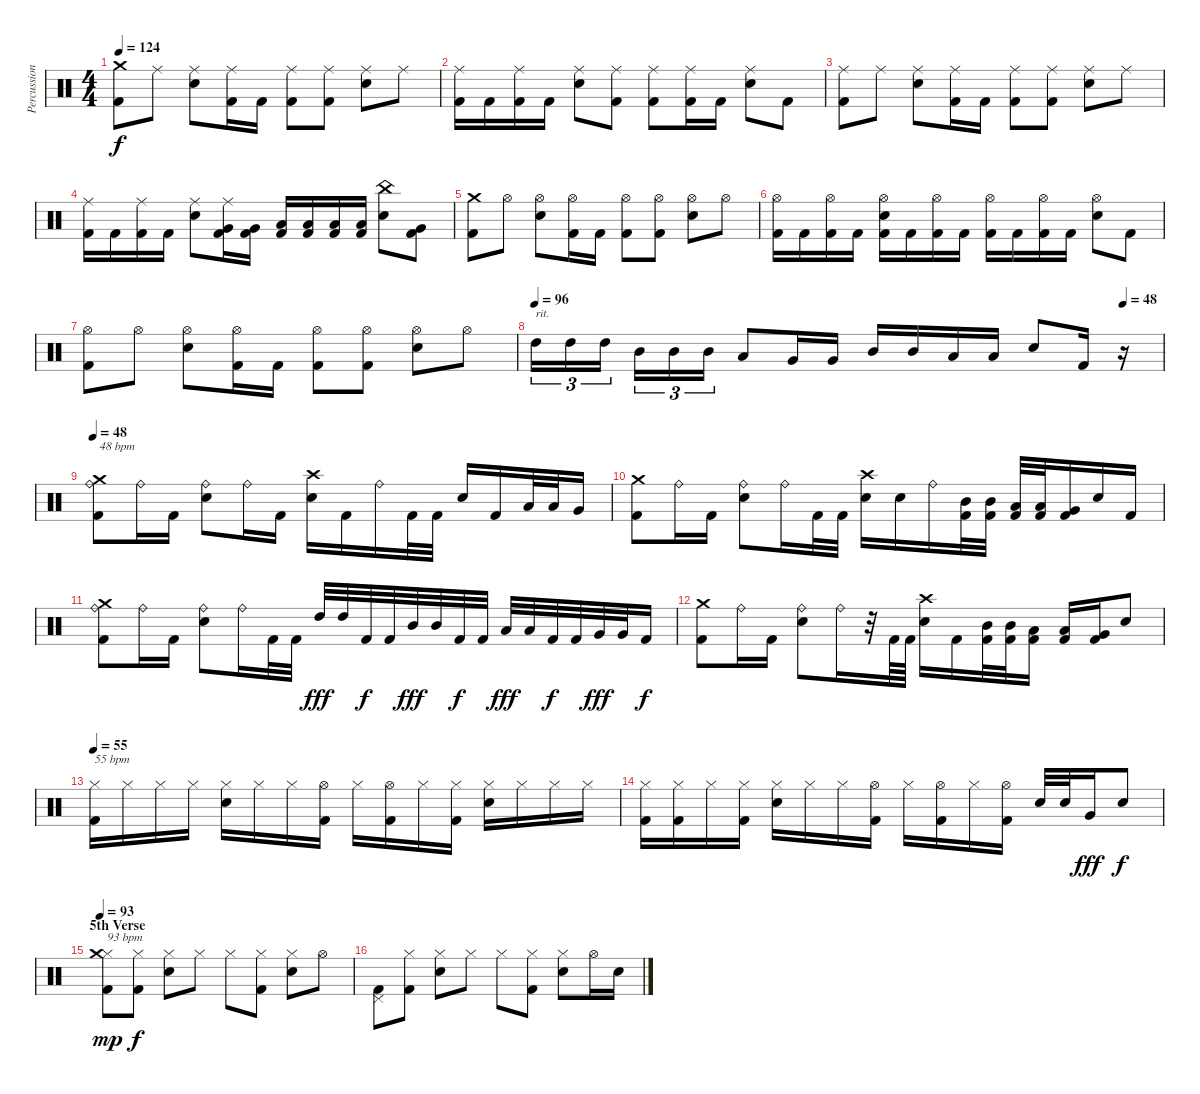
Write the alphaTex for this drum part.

\track ("Percussion" "Percussion") {instrument percussion}
\staff {score}
\articulation defaults
\ts (4 4)
\tempo 124
\clef neutral
\ks c
("Kick (hit) 2" "Crash medium (hit)").8{dy f} "Ride (middle)".8 ("Electric Snare (hit)" "Ride (middle)").8 ("Kick (hit) 2" "Ride (middle)").16 "Kick (hit) 2".16 ("Kick (hit) 2" "Ride (middle)").8 ("Kick (hit) 2" "Ride (middle)").8 ("Electric Snare (hit)" "Ride (middle)").8 "Ride (middle)".8 |
("Kick (hit) 2" "Ride (middle)").16 "Kick (hit) 2".16 ("Kick (hit) 2" "Ride (middle)").16 "Kick (hit) 2".16 ("Electric Snare (hit)" "Ride (middle)").8 ("Kick (hit) 2" "Ride (middle)").8 ("Kick (hit) 2" "Ride (middle)").8 ("Kick (hit) 2" "Ride (middle)").16 "Kick (hit) 2".16 ("Electric Snare (hit)" "Ride (middle)").8 "Kick (hit) 2".8 |
("Kick (hit) 2" "Ride (middle)").8 "Ride (middle)".8 ("Electric Snare (hit)" "Ride (middle)").8 ("Kick (hit) 2" "Ride (middle)").16 "Kick (hit) 2".16 ("Kick (hit) 2" "Ride (middle)").8 ("Kick (hit) 2" "Ride (middle)").8 ("Electric Snare (hit)" "Ride (middle)").8 "Ride (middle)".8 |
("Kick (hit) 2" "Ride (middle)").16 "Kick (hit) 2".16 ("Kick (hit) 2" "Ride (middle)").16 "Kick (hit) 2".16 ("Electric Snare (hit)" "Ride (middle)").8 ("Kick (hit) 2" "Very Low Tom (hit)" "Ride (middle)").16 ("Kick (hit) 2" "Very Low Tom (hit)").16 ("Kick (hit) 2" "Low Tom (hit)").16 ("Kick (hit) 2" "Low Tom (hit)").16 ("Kick (hit) 2" "Low Tom (hit)").16 ("Kick (hit) 2" "Low Tom (hit)").16 ("Electric Snare (hit)" "China (hit)").8 ("Kick (hit) 2" "Very Low Tom (hit)").8 |
("Kick (hit) 2" "Crash medium (hit)").8 "Hi-Hat (open)".8 ("Electric Snare (hit)" "Hi-Hat (open)").8 ("Kick (hit) 2" "Hi-Hat (open)").16 "Kick (hit) 2".16 ("Kick (hit) 2" "Hi-Hat (open)").8 ("Kick (hit) 2" "Hi-Hat (open)").8 ("Electric Snare (hit)" "Hi-Hat (open)").8 "Hi-Hat (open)".8 |
("Kick (hit) 2" "Hi-Hat (open)").16 "Kick (hit) 2".16 ("Kick (hit) 2" "Hi-Hat (open)").16 "Kick (hit) 2".16 ("Kick (hit) 2" "Electric Snare (hit)" "Hi-Hat (open)").16 "Kick (hit) 2".16 ("Kick (hit) 2" "Hi-Hat (open)").16 "Kick (hit) 2".16 ("Kick (hit) 2" "Hi-Hat (open)").16 "Kick (hit) 2".16 ("Kick (hit) 2" "Hi-Hat (open)").16 "Kick (hit) 2".16 ("Electric Snare (hit)" "Hi-Hat (open)").8 "Kick (hit) 2".8 |
("Kick (hit) 2" "Hi-Hat (open)").8 "Hi-Hat (open)".8 ("Electric Snare (hit)" "Hi-Hat (open)").8 ("Kick (hit) 2" "Hi-Hat (open)").16 "Kick (hit) 2".16 ("Kick (hit) 2" "Hi-Hat (open)").8 ("Kick (hit) 2" "Hi-Hat (open)").8 ("Electric Snare (hit)" "Hi-Hat (open)").8 "Hi-Hat (open)".8 |
\tempo 96
\tempo (48 0.9375)
"High Tom (hit)".16{tu (3 2) txt "rit."} "High Tom (hit)".16{tu (3 2)} "High Tom (hit)".16{tu (3 2)} "Mid Tom (hit)".16{tu (3 2)} "Mid Tom (hit)".16{tu (3 2)} "Mid Tom (hit)".16{tu (3 2)} "Low Tom (hit)".8 "Very Low Tom (hit)".16 "Very Low Tom (hit)".16 "Mid Tom (hit)".16 "Mid Tom (hit)".16 "Low Tom (hit)".16 "Low Tom (hit)".16 "Electric Snare (hit)".8 "Kick (hit) 2".16 r.16 |
\tempo 48
("Kick (hit) 2" "Ride (bell)" "Crash medium (hit)").8{txt "48 bpm"} "Ride (bell)".16 "Kick (hit) 2".16 ("Electric Snare (hit)" "Ride (bell)").8 "Ride (bell)".16 "Kick (hit) 2".16 ("Electric Snare (hit)" "Crash high (hit)").16 "Kick (hit) 2".16 "Ride (bell)".16 "Kick (hit) 2".32 "Kick (hit) 2".32 "Electric Snare (hit)".16 "Kick (hit) 2".16 "Low Tom (hit)".32 "Low Tom (hit)".32 "Very Low Tom (hit)".16 |
("Kick (hit) 2" "Crash medium (hit)").8 "Ride (bell)".16 "Kick (hit) 2".16 ("Electric Snare (hit)" "Ride (bell)").8 "Ride (bell)".16 "Kick (hit) 2".32 "Kick (hit) 2".32 ("Electric Snare (hit)" "Crash high (hit)").16 "Electric Snare (hit)".16 "Ride (bell)".16 ("Kick (hit) 2" "Mid Tom (hit)").32 ("Kick (hit) 2" "Mid Tom (hit)").32 ("Kick (hit) 2" "Low Tom (hit)").32 ("Kick (hit) 2" "Low Tom (hit)").32 ("Kick (hit) 2" "Very Low Tom (hit)").16 "Electric Snare (hit)".16 "Kick (hit) 2".16 |
("Kick (hit) 2" "Ride (bell)" "Crash medium (hit)").8 "Ride (bell)".16 "Kick (hit) 2".16 ("Electric Snare (hit)" "Ride (bell)").8 "Ride (bell)".16 "Kick (hit) 2".32 "Kick (hit) 2".32 "High Tom (hit)".32{dy fff} "High Tom (hit)".32 "Kick (hit) 2".32{dy f} "Kick (hit) 2".32 "Mid Tom (hit)".32{dy fff} "Mid Tom (hit)".32 "Kick (hit) 2".32{dy f} "Kick (hit) 2".32 "Low Tom (hit)".32{dy fff} "Low Tom (hit)".32 "Kick (hit) 2".32{dy f} "Kick (hit) 2".32 "Very Low Tom (hit)".32{dy fff} "Very Low Tom (hit)".32 "Kick (hit) 2".16{dy f} |
("Kick (hit) 2" "Crash medium (hit)").8 "Ride (bell)".16 "Kick (hit) 2".16 ("Electric Snare (hit)" "Ride (bell)").8 "Ride (bell)".16 r.32 "Kick (hit) 2".64 "Kick (hit) 2".64 ("Electric Snare (hit)" "Crash high (hit)").16 "Kick (hit) 2".16 ("Kick (hit) 2" "Mid Tom (hit)").32 ("Kick (hit) 2" "Mid Tom (hit)").32 ("Kick (hit) 2" "Low Tom (hit)").16 ("Kick (hit) 2" "Low Tom (hit)").16 ("Kick (hit) 2" "Very Low Tom (hit)").16 "Electric Snare (hit)".8 |
\tempo 55
("Kick (hit) 2" "Hi-Hat (closed)").16{txt "55 bpm"} "Hi-Hat (closed)".16 "Hi-Hat (closed)".16 "Hi-Hat (closed)".16 ("Electric Snare (hit)" "Hi-Hat (closed)").16 "Hi-Hat (closed)".16 "Hi-Hat (closed)".16 ("Kick (hit) 2" "Hi-Hat (open)").16 "Hi-Hat (closed)".16 ("Kick (hit) 2" "Hi-Hat (open)").16 "Hi-Hat (closed)".16 ("Kick (hit) 2" "Hi-Hat (closed)").16 ("Electric Snare (hit)" "Hi-Hat (closed)").16 "Hi-Hat (closed)".16 "Hi-Hat (closed)".16 "Hi-Hat (closed)".16 |
("Kick (hit) 2" "Hi-Hat (closed)").16 ("Kick (hit) 2" "Hi-Hat (closed)").16 "Hi-Hat (closed)".16 ("Kick (hit) 2" "Hi-Hat (closed)").16 ("Electric Snare (hit)" "Hi-Hat (closed)").16 "Hi-Hat (closed)".16 "Hi-Hat (closed)".16 ("Kick (hit) 2" "Hi-Hat (open)").16 "Hi-Hat (closed)".16 ("Kick (hit) 2" "Hi-Hat (open)").16 "Hi-Hat (closed)".16 ("Kick (hit) 2" "Hi-Hat (open)").16 "Electric Snare (hit)".32 "Electric Snare (hit)".32 "Very Low Tom (hit)".16{dy fff} "Electric Snare (hit)".8{dy f} |
\section ("" "5th Verse")
\tempo 93
("Kick (hit) 2" "Hi-Hat (closed)" "Crash medium (hit)").8{txt "93 bpm" dy mp} ("Kick (hit) 2" "Hi-Hat (closed)").8{dy f} ("Electric Snare (hit)" "Hi-Hat (closed)").8 "Hi-Hat (closed)".8 "Hi-Hat (closed)".8 ("Kick (hit) 2" "Hi-Hat (closed)").8 ("Electric Snare (hit)" "Hi-Hat (closed)").8 "Hi-Hat (open)".8 |
("Kick (hit) 2" "Pedal Hi-Hat (hit)").8 ("Kick (hit) 2" "Hi-Hat (closed)").8 ("Electric Snare (hit)" "Hi-Hat (closed)").8 "Hi-Hat (closed)".8 "Hi-Hat (closed)".8 ("Kick (hit) 2" "Hi-Hat (closed)").8 ("Electric Snare (hit)" "Hi-Hat (closed)").8 "Hi-Hat (open)".16 "Electric Snare (hit)".16
